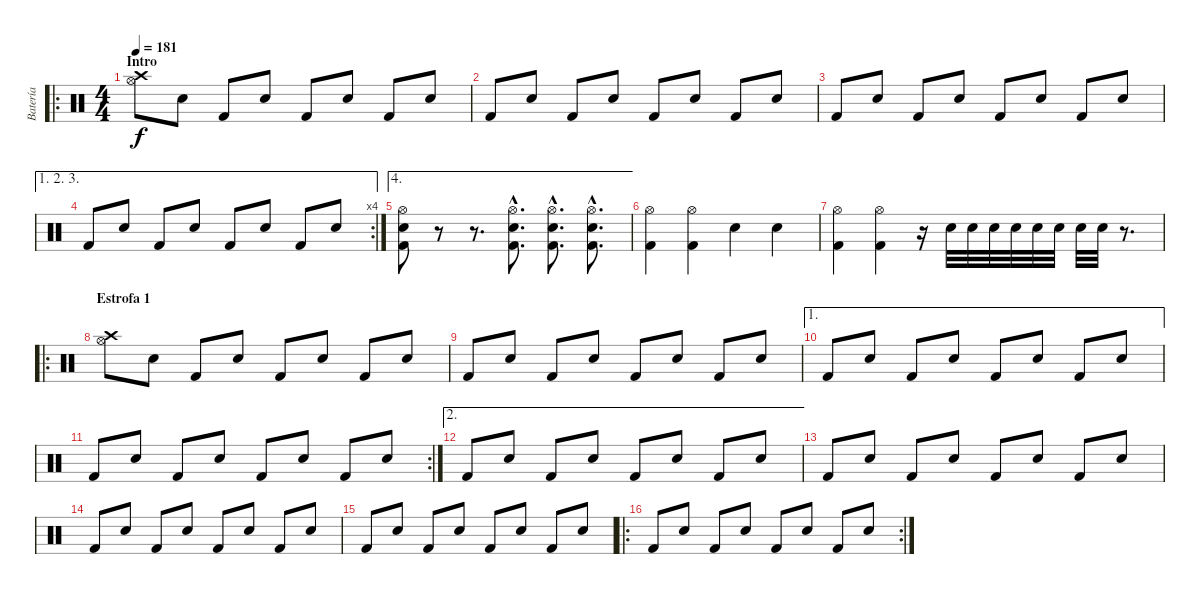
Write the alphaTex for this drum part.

\track ("Batería" "Batería") {instrument percussion}
\staff {score}
\articulation defaults
\ro
\ts (4 4)
\section ("" "Intro")
\tempo 181
\clef neutral
\ks c
("Crash high (hit)" "Hi-Hat (open)").8{dy f} "Electric Snare (hit)".8 "Kick (hit) 2".8 "Electric Snare (hit)".8 "Kick (hit) 2".8 "Electric Snare (hit)".8 "Kick (hit) 2".8 "Electric Snare (hit)".8 |
"Kick (hit) 2".8 "Electric Snare (hit)".8 "Kick (hit) 2".8 "Electric Snare (hit)".8 "Kick (hit) 2".8 "Electric Snare (hit)".8 "Kick (hit) 2".8 "Electric Snare (hit)".8 |
"Kick (hit) 2".8 "Electric Snare (hit)".8 "Kick (hit) 2".8 "Electric Snare (hit)".8 "Kick (hit) 2".8 "Electric Snare (hit)".8 "Kick (hit) 2".8 "Electric Snare (hit)".8 |
\ae (1 2 3)
\rc 4 "Kick (hit) 2".8 "Electric Snare (hit)".8 "Kick (hit) 2".8 "Electric Snare (hit)".8 "Kick (hit) 2".8 "Electric Snare (hit)".8 "Kick (hit) 2".8 "Electric Snare (hit)".8
|
\ae 4
("Hi-Hat (open)" "Kick (hit) 2" "Electric Snare (hit)").8 r.8 r.8{d} ("Hi-Hat (open)"{hac} "Kick (hit) 2"{hac} "Electric Snare (hit)"{hac}).8{d} ("Hi-Hat (open)"{hac} "Kick (hit) 2"{hac} "Electric Snare (hit)"{hac}).8{d} ("Hi-Hat (open)"{hac} "Kick (hit) 2"{hac} "Electric Snare (hit)"{hac}).8{d} |
("Hi-Hat (open)" "Kick (hit) 2").4 ("Hi-Hat (open)" "Kick (hit) 2").4 "Snare (hit) 2".4 "Snare (hit) 2".4 |
("Hi-Hat (open)" "Kick (hit) 2").4 ("Hi-Hat (open)" "Kick (hit) 2").4 r.16 "Electric Snare (hit)".32 "Electric Snare (hit)".32 "Electric Snare (hit)".32 "Electric Snare (hit)".32 "Electric Snare (hit)".32 "Electric Snare (hit)".32 "Electric Snare (hit)".32 "Electric Snare (hit)".32 r.8{d} |
\ro
\section ("" "Estrofa 1")
("Crash high (hit)" "Hi-Hat (open)").8 "Electric Snare (hit)".8 "Kick (hit) 2".8 "Electric Snare (hit)".8 "Kick (hit) 2".8 "Electric Snare (hit)".8 "Kick (hit) 2".8 "Electric Snare (hit)".8 |
"Kick (hit) 2".8 "Electric Snare (hit)".8 "Kick (hit) 2".8 "Electric Snare (hit)".8 "Kick (hit) 2".8 "Electric Snare (hit)".8 "Kick (hit) 2".8 "Electric Snare (hit)".8 |
\ae 1 "Kick (hit) 2".8 "Electric Snare (hit)".8 "Kick (hit) 2".8 "Electric Snare (hit)".8 "Kick (hit) 2".8 "Electric Snare (hit)".8 "Kick (hit) 2".8 "Electric Snare (hit)".8
|
\rc 2 "Kick (hit) 2".8 "Electric Snare (hit)".8 "Kick (hit) 2".8 "Electric Snare (hit)".8 "Kick (hit) 2".8 "Electric Snare (hit)".8 "Kick (hit) 2".8 "Electric Snare (hit)".8
|
\ae 2 "Kick (hit) 2".8 "Electric Snare (hit)".8 "Kick (hit) 2".8 "Electric Snare (hit)".8 "Kick (hit) 2".8 "Electric Snare (hit)".8 "Kick (hit) 2".8 "Electric Snare (hit)".8
|
"Kick (hit) 2".8 "Electric Snare (hit)".8 "Kick (hit) 2".8 "Electric Snare (hit)".8 "Kick (hit) 2".8 "Electric Snare (hit)".8 "Kick (hit) 2".8 "Electric Snare (hit)".8 |
"Kick (hit) 2".8 "Electric Snare (hit)".8 "Kick (hit) 2".8 "Electric Snare (hit)".8 "Kick (hit) 2".8 "Electric Snare (hit)".8 "Kick (hit) 2".8 "Electric Snare (hit)".8 |
"Kick (hit) 2".8 "Electric Snare (hit)".8 "Kick (hit) 2".8 "Electric Snare (hit)".8 "Kick (hit) 2".8 "Electric Snare (hit)".8 "Kick (hit) 2".8 "Electric Snare (hit)".8 |
\ro
\rc 2 "Kick (hit) 2".8 "Electric Snare (hit)".8 "Kick (hit) 2".8 "Electric Snare (hit)".8 "Kick (hit) 2".8 "Electric Snare (hit)".8 "Kick (hit) 2".8 "Electric Snare (hit)".8
